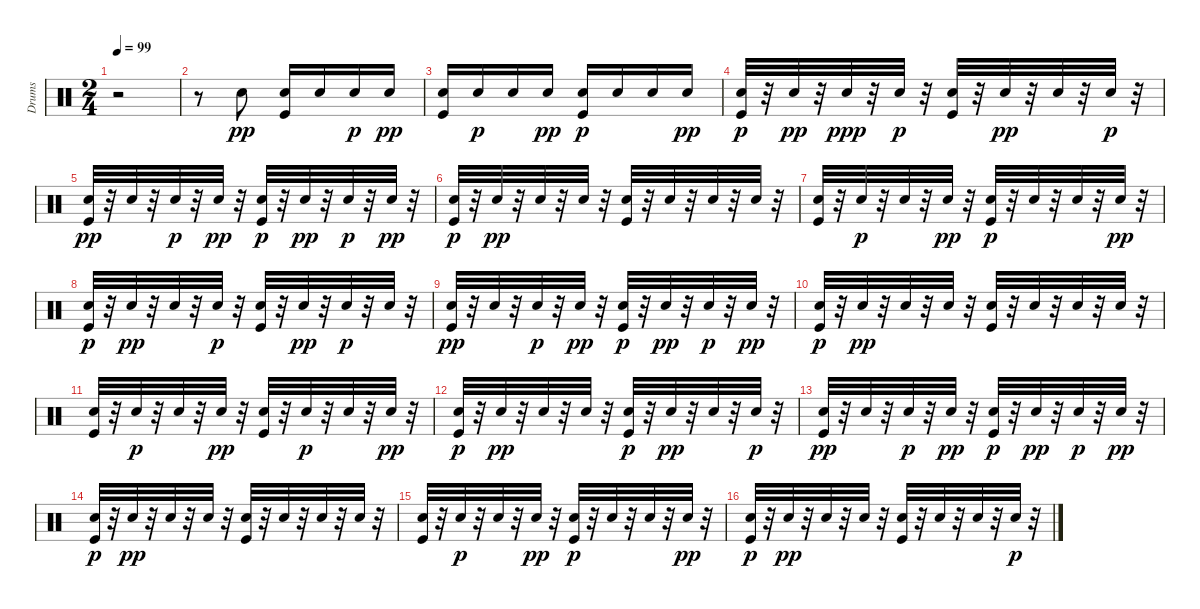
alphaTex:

\track ("Drums" "Drums") {instrument percussion}
\staff {score}
\articulation defaults
\ts (2 4)
\tempo 99
\clef neutral
\ks c
r.2{dy pp} |
r.8 "Snare (hit) 2".8 ("Kick (hit)" "Snare (hit) 2").16 "Snare (hit) 2".16 "Snare (hit) 2".16{dy p} "Snare (hit) 2".16{dy pp} |
("Kick (hit)" "Hand Clap (hit)").16 "Snare (hit) 2".16{dy p} "Snare (hit) 2".16 "Snare (hit) 2".16{dy pp} ("Hand Clap (hit)" "Kick (hit)").16{dy p} "Snare (hit) 2".16 "Snare (hit) 2".16 "Hand Clap (hit)".16{dy pp} |
("Hand Clap (hit)" "Kick (hit)").32{dy p} r.32 "Hand Clap (hit)".32{dy pp} r.32 "Hand Clap (hit)".32{dy ppp} r.32 "Snare (hit) 2".32{dy p} r.32 ("Hand Clap (hit)" "Kick (hit)").32 r.32 "Hand Clap (hit)".32{dy pp} r.32 "Hand Clap (hit)".32 r.32 "Snare (hit) 2".32{dy p} r.32 |
("Kick (hit)" "Hand Clap (hit)").32{dy pp} r.32 "Snare (hit) 2".32 r.32 "Snare (hit) 2".32{dy p} r.32 "Snare (hit) 2".32{dy pp} r.32 ("Hand Clap (hit)" "Kick (hit)").32{dy p} r.32 "Snare (hit) 2".32{dy pp} r.32 "Snare (hit) 2".32{dy p} r.32 "Snare (hit) 2".32{dy pp} r.32 |
("Hand Clap (hit)" "Kick (hit)").32{dy p} r.32 "Snare (hit) 2".32{dy pp} r.32 "Snare (hit) 2".32 r.32 "Hand Clap (hit)".32 r.32 ("Kick (hit)" "Hand Clap (hit)").32 r.32 "Hand Clap (hit)".32 r.32 "Hand Clap (hit)".32 r.32 "Hand Clap (hit)".32 r.32 |
("Kick (hit)" "Hand Clap (hit)").32 r.32 "Snare (hit) 2".32{dy p} r.32 "Snare (hit) 2".32 r.32 "Snare (hit) 2".32{dy pp} r.32 ("Hand Clap (hit)" "Kick (hit)").32{dy p} r.32 "Snare (hit) 2".32 r.32 "Snare (hit) 2".32 r.32 "Hand Clap (hit)".32{dy pp} r.32 |
("Hand Clap (hit)" "Kick (hit)").32{dy p} r.32 "Snare (hit) 2".32{dy pp} r.32 "Snare (hit) 2".32 r.32 "Snare (hit) 2".32{dy p} r.32 ("Hand Clap (hit)" "Kick (hit)").32 r.32 "Hand Clap (hit)".32{dy pp} r.32 "Snare (hit) 2".32{dy p} r.32 "Snare (hit) 2".32 r.32 |
("Kick (hit)" "Hand Clap (hit)").32{dy pp} r.32 "Snare (hit) 2".32 r.32 "Snare (hit) 2".32{dy p} r.32 "Snare (hit) 2".32{dy pp} r.32 ("Hand Clap (hit)" "Kick (hit)").32{dy p} r.32 "Snare (hit) 2".32{dy pp} r.32 "Snare (hit) 2".32{dy p} r.32 "Snare (hit) 2".32{dy pp} r.32 |
("Hand Clap (hit)" "Kick (hit)").32{dy p} r.32 "Snare (hit) 2".32{dy pp} r.32 "Snare (hit) 2".32 r.32 "Hand Clap (hit)".32 r.32 ("Kick (hit)" "Hand Clap (hit)").32 r.32 "Snare (hit) 2".32 r.32 "Hand Clap (hit)".32 r.32 "Hand Clap (hit)".32 r.32 |
("Kick (hit)" "Hand Clap (hit)").32 r.32 "Snare (hit) 2".32{dy p} r.32 "Snare (hit) 2".32 r.32 "Hand Clap (hit)".32{dy pp} r.32 ("Kick (hit)" "Snare (hit) 2").32 r.32 "Snare (hit) 2".32{dy p} r.32 "Snare (hit) 2".32 r.32 "Hand Clap (hit)".32{dy pp} r.32 |
("Hand Clap (hit)" "Kick (hit)").32{dy p} r.32 "Snare (hit) 2".32{dy pp} r.32 "Snare (hit) 2".32 r.32 "Hand Clap (hit)".32 r.32 ("Hand Clap (hit)" "Kick (hit)").32{dy p} r.32 "Snare (hit) 2".32{dy pp} r.32 "Hand Clap (hit)".32 r.32 "Snare (hit) 2".32{dy p} r.32 |
("Kick (hit)" "Hand Clap (hit)").32{dy pp} r.32 "Snare (hit) 2".32 r.32 "Snare (hit) 2".32{dy p} r.32 "Snare (hit) 2".32{dy pp} r.32 ("Hand Clap (hit)" "Kick (hit)").32{dy p} r.32 "Snare (hit) 2".32{dy pp} r.32 "Snare (hit) 2".32{dy p} r.32 "Snare (hit) 2".32{dy pp} r.32 |
("Hand Clap (hit)" "Kick (hit)").32{dy p} r.32 "Snare (hit) 2".32{dy pp} r.32 "Snare (hit) 2".32 r.32 "Hand Clap (hit)".32 r.32 ("Kick (hit)" "Hand Clap (hit)").32 r.32 "Snare (hit) 2".32 r.32 "Hand Clap (hit)".32 r.32 "Snare (hit) 2".32 r.32 |
("Kick (hit)" "Hand Clap (hit)").32 r.32 "Snare (hit) 2".32{dy p} r.32 "Snare (hit) 2".32 r.32 "Snare (hit) 2".32{dy pp} r.32 ("Hand Clap (hit)" "Kick (hit)").32{dy p} r.32 "Snare (hit) 2".32 r.32 "Snare (hit) 2".32 r.32 "Snare (hit) 2".32{dy pp} r.32 |
("Hand Clap (hit)" "Kick (hit)").32{dy p} r.32 "Snare (hit) 2".32{dy pp} r.32 "Snare (hit) 2".32 r.32 "Hand Clap (hit)".32 r.32 ("Kick (hit)" "Hand Clap (hit)").32 r.32 "Snare (hit) 2".32 r.32 "Hand Clap (hit)".32 r.32 "Snare (hit) 2".32{dy p} r.32
